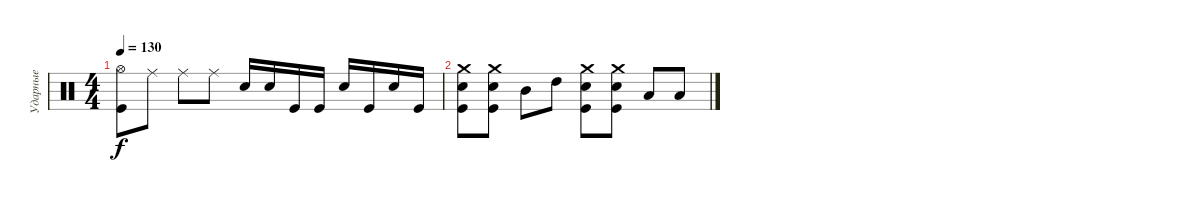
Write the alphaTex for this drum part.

\track ("Ударные" "Ударные") {instrument percussion}
\staff {score}
\articulation defaults
\ts (4 4)
\tempo 130
\clef neutral
\ks c
("Kick (hit)" "Hi-Hat (open)").8{dy f} "Ride (middle)".8 "Ride (middle)".8 "Ride (middle)".8 "Electric Snare (hit)".16 "Electric Snare (hit)".16 "Kick (hit)".16 "Kick (hit)".16 "Electric Snare (hit)".16 "Kick (hit)".16 "Electric Snare (hit)".16 "Kick (hit)".16 |
("Crash medium (hit)" "Electric Snare (hit)" "Kick (hit)").8 ("Crash medium (hit)" "Electric Snare (hit)" "Kick (hit)").8 "Mid Tom (hit)".8 "High Tom (hit)".8 ("Crash medium (hit)" "Electric Snare (hit)" "Kick (hit)").8 ("Crash medium (hit)" "Electric Snare (hit)" "Kick (hit)").8 "Low Tom (hit)".8 "Low Tom (hit)".8
